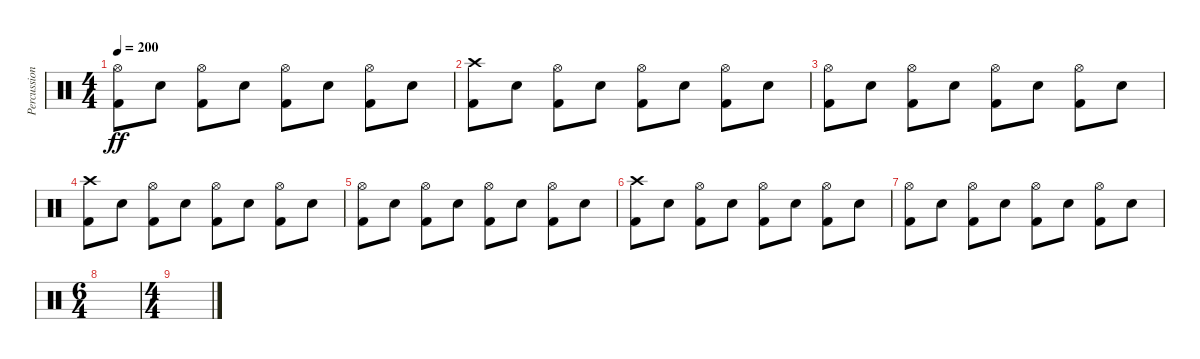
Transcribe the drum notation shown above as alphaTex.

\track ("Percussion" "Percussion") {instrument percussion}
\staff {score}
\articulation defaults
\ts (4 4)
\tempo 200
\clef neutral
\ks c
("Hi-Hat (open)" "Kick (hit) 2").8{dy ff} "Snare (hit) 2".8 ("Hi-Hat (open)" "Kick (hit) 2").8 "Snare (hit) 2".8 ("Hi-Hat (open)" "Kick (hit) 2").8 "Snare (hit) 2".8 ("Hi-Hat (open)" "Kick (hit) 2").8 "Snare (hit) 2".8 |
("Crash high (hit)" "Kick (hit) 2").8 "Snare (hit) 2".8 ("Hi-Hat (open)" "Kick (hit) 2").8 "Snare (hit) 2".8 ("Hi-Hat (open)" "Kick (hit) 2").8 "Snare (hit) 2".8 ("Hi-Hat (open)" "Kick (hit) 2").8 "Snare (hit) 2".8 |
("Hi-Hat (open)" "Kick (hit) 2").8 "Snare (hit) 2".8 ("Hi-Hat (open)" "Kick (hit) 2").8 "Snare (hit) 2".8 ("Hi-Hat (open)" "Kick (hit) 2").8 "Snare (hit) 2".8 ("Hi-Hat (open)" "Kick (hit) 2").8 "Snare (hit) 2".8 |
("Crash high (hit)" "Kick (hit) 2").8 "Snare (hit) 2".8 ("Hi-Hat (open)" "Kick (hit) 2").8 "Snare (hit) 2".8 ("Hi-Hat (open)" "Kick (hit) 2").8 "Snare (hit) 2".8 ("Hi-Hat (open)" "Kick (hit) 2").8 "Snare (hit) 2".8 |
("Hi-Hat (open)" "Kick (hit) 2").8 "Snare (hit) 2".8 ("Hi-Hat (open)" "Kick (hit) 2").8 "Snare (hit) 2".8 ("Hi-Hat (open)" "Kick (hit) 2").8 "Snare (hit) 2".8 ("Hi-Hat (open)" "Kick (hit) 2").8 "Snare (hit) 2".8 |
("Crash high (hit)" "Kick (hit) 2").8 "Snare (hit) 2".8 ("Hi-Hat (open)" "Kick (hit) 2").8 "Snare (hit) 2".8 ("Hi-Hat (open)" "Kick (hit) 2").8 "Snare (hit) 2".8 ("Hi-Hat (open)" "Kick (hit) 2").8 "Snare (hit) 2".8 |
("Hi-Hat (open)" "Kick (hit) 2").8 "Snare (hit) 2".8 ("Hi-Hat (open)" "Kick (hit) 2").8 "Snare (hit) 2".8 ("Hi-Hat (open)" "Kick (hit) 2").8 "Snare (hit) 2".8 ("Hi-Hat (open)" "Kick (hit) 2").8 "Snare (hit) 2".8 |
\ts (6 4)
|
\ts (4 4)
